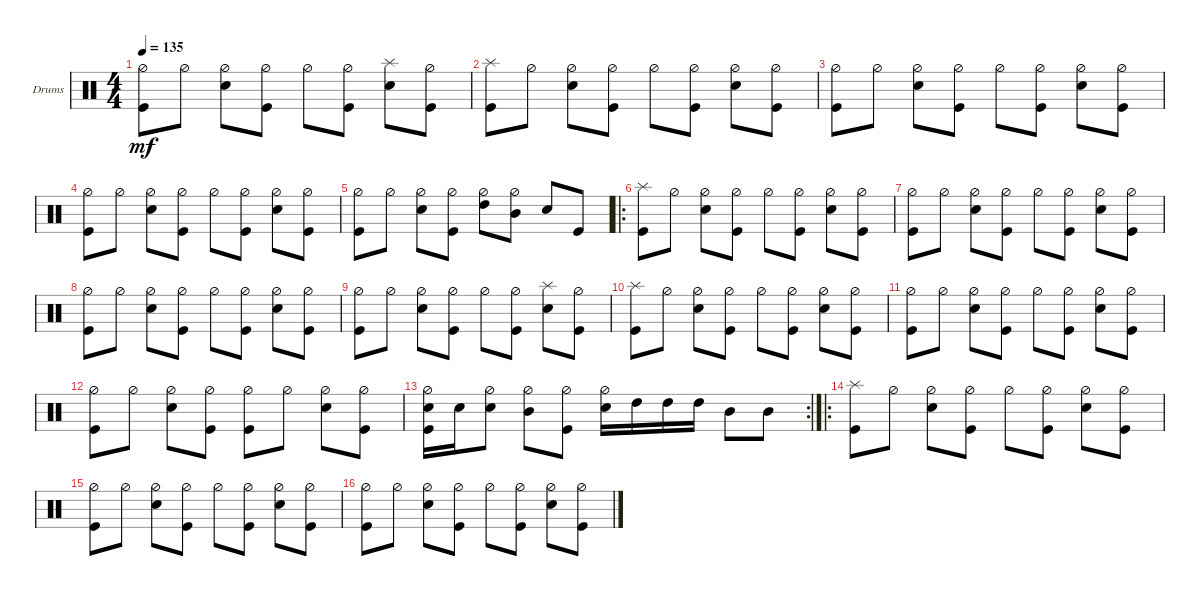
\defaultSystemsLayout 4
\bracketExtendMode groupsimilarinstruments
\firstSystemTrackNameOrientation horizontal
\otherSystemsTrackNameOrientation horizontal
\track ("Drumkit" "Drums") {instrument percussion}
\staff {score}
\articulation defaults
\ts (4 4)
\tempo 135
\clef neutral
\ks c
("Kick (hit)" "Hi-Hat (half)").8{dy mf} "Hi-Hat (half)".8 ("Snare (hit) 2" "Hi-Hat (half)").8 ("Kick (hit)" "Hi-Hat (half)").8 "Hi-Hat (half)".8 ("Kick (hit)" "Hi-Hat (half)").8 ("Snare (hit) 2" "Splash (hit)").8 ("Kick (hit)" "Hi-Hat (half)").8 |
("Kick (hit)" "Splash (hit)").8 "Hi-Hat (half)".8 ("Snare (hit) 2" "Hi-Hat (half)").8 ("Kick (hit)" "Hi-Hat (half)").8 "Hi-Hat (half)".8 ("Kick (hit)" "Hi-Hat (half)").8 ("Snare (hit) 2" "Hi-Hat (half)").8 ("Kick (hit)" "Hi-Hat (half)").8 |
("Kick (hit)" "Hi-Hat (half)").8 "Hi-Hat (half)".8 ("Snare (hit) 2" "Hi-Hat (half)").8 ("Kick (hit)" "Hi-Hat (half)").8 "Hi-Hat (half)".8 ("Kick (hit)" "Hi-Hat (half)").8 ("Snare (hit) 2" "Hi-Hat (half)").8 ("Kick (hit)" "Hi-Hat (half)").8 |
("Kick (hit)" "Hi-Hat (half)").8 "Hi-Hat (half)".8 ("Snare (hit) 2" "Hi-Hat (half)").8 ("Kick (hit)" "Hi-Hat (half)").8 "Hi-Hat (half)".8 ("Kick (hit)" "Hi-Hat (half)").8 ("Snare (hit) 2" "Hi-Hat (half)").8 ("Kick (hit)" "Hi-Hat (half)").8 |
("Kick (hit)" "Hi-Hat (half)").8 "Hi-Hat (half)".8 ("Snare (hit) 2" "Hi-Hat (half)").8 ("Kick (hit)" "Hi-Hat (half)").8 ("Hi-Hat (half)" "High Tom (hit)").8 ("Hi-Hat (half)" "Mid Tom (hit)").8 "Snare (hit) 2".8 "Kick (hit)".8 |
\ro
("Kick (hit)" "Splash (hit)").8 "Hi-Hat (half)".8 ("Snare (hit) 2" "Hi-Hat (half)").8 ("Kick (hit)" "Hi-Hat (half)").8 "Hi-Hat (half)".8 ("Kick (hit)" "Hi-Hat (half)").8 ("Snare (hit) 2" "Hi-Hat (half)").8 ("Kick (hit)" "Hi-Hat (half)").8 |
("Kick (hit)" "Hi-Hat (half)").8 "Hi-Hat (half)".8 ("Snare (hit) 2" "Hi-Hat (half)").8 ("Kick (hit)" "Hi-Hat (half)").8 "Hi-Hat (half)".8 ("Kick (hit)" "Hi-Hat (half)").8 ("Snare (hit) 2" "Hi-Hat (half)").8 ("Kick (hit)" "Hi-Hat (half)").8 |
("Kick (hit)" "Hi-Hat (half)").8 "Hi-Hat (half)".8 ("Snare (hit) 2" "Hi-Hat (half)").8 ("Kick (hit)" "Hi-Hat (half)").8 "Hi-Hat (half)".8 ("Kick (hit)" "Hi-Hat (half)").8 ("Snare (hit) 2" "Hi-Hat (half)").8 ("Kick (hit)" "Hi-Hat (half)").8 |
("Kick (hit)" "Hi-Hat (half)").8 "Hi-Hat (half)".8 ("Snare (hit) 2" "Hi-Hat (half)").8 ("Kick (hit)" "Hi-Hat (half)").8 "Hi-Hat (half)".8 ("Kick (hit)" "Hi-Hat (half)").8 ("Snare (hit) 2" "Splash (hit)").8 ("Kick (hit)" "Hi-Hat (half)").8 |
("Kick (hit)" "Splash (hit)").8 "Hi-Hat (half)".8 ("Snare (hit) 2" "Hi-Hat (half)").8 ("Kick (hit)" "Hi-Hat (half)").8 "Hi-Hat (half)".8 ("Kick (hit)" "Hi-Hat (half)").8 ("Snare (hit) 2" "Hi-Hat (half)").8 ("Kick (hit)" "Hi-Hat (half)").8 |
("Kick (hit)" "Hi-Hat (half)").8 "Hi-Hat (half)".8 ("Snare (hit) 2" "Hi-Hat (half)").8 ("Kick (hit)" "Hi-Hat (half)").8 "Hi-Hat (half)".8 ("Kick (hit)" "Hi-Hat (half)").8 ("Snare (hit) 2" "Hi-Hat (half)").8 ("Kick (hit)" "Hi-Hat (half)").8 |
("Kick (hit)" "Hi-Hat (half)").8 "Hi-Hat (half)".8 ("Snare (hit) 2" "Hi-Hat (half)").8 ("Kick (hit)" "Hi-Hat (half)").8 ("Hi-Hat (half)" "Kick (hit)").8 "Hi-Hat (half)".8 ("Snare (hit) 2" "Hi-Hat (half)").8 ("Kick (hit)" "Hi-Hat (half)").8 |
\rc 2
("Kick (hit)" "Hi-Hat (half)" "Snare (hit) 2").16 "Snare (hit) 2".16 ("Snare (hit) 2" "Hi-Hat (half)").8 ("Mid Tom (hit)" "Hi-Hat (half)").8 ("Kick (hit)" "Hi-Hat (half)").8 ("Snare (hit) 2" "Hi-Hat (half)").16 "High Tom (hit)".16 "High Tom (hit)".16 "High Tom (hit)".16 "Mid Tom (hit)".8 "Mid Tom (hit)".8 |
\ro
("Kick (hit)" "Splash (hit)").8 "Hi-Hat (half)".8 ("Snare (hit) 2" "Hi-Hat (half)").8 ("Kick (hit)" "Hi-Hat (half)").8 "Hi-Hat (half)".8 ("Kick (hit)" "Hi-Hat (half)").8 ("Snare (hit) 2" "Hi-Hat (half)").8 ("Kick (hit)" "Hi-Hat (half)").8 |
("Kick (hit)" "Hi-Hat (half)").8 "Hi-Hat (half)".8 ("Snare (hit) 2" "Hi-Hat (half)").8 ("Kick (hit)" "Hi-Hat (half)").8 "Hi-Hat (half)".8 ("Kick (hit)" "Hi-Hat (half)").8 ("Snare (hit) 2" "Hi-Hat (half)").8 ("Kick (hit)" "Hi-Hat (half)").8 |
("Kick (hit)" "Hi-Hat (half)").8 "Hi-Hat (half)".8 ("Snare (hit) 2" "Hi-Hat (half)").8 ("Kick (hit)" "Hi-Hat (half)").8 "Hi-Hat (half)".8 ("Kick (hit)" "Hi-Hat (half)").8 ("Snare (hit) 2" "Hi-Hat (half)").8 ("Kick (hit)" "Hi-Hat (half)").8
